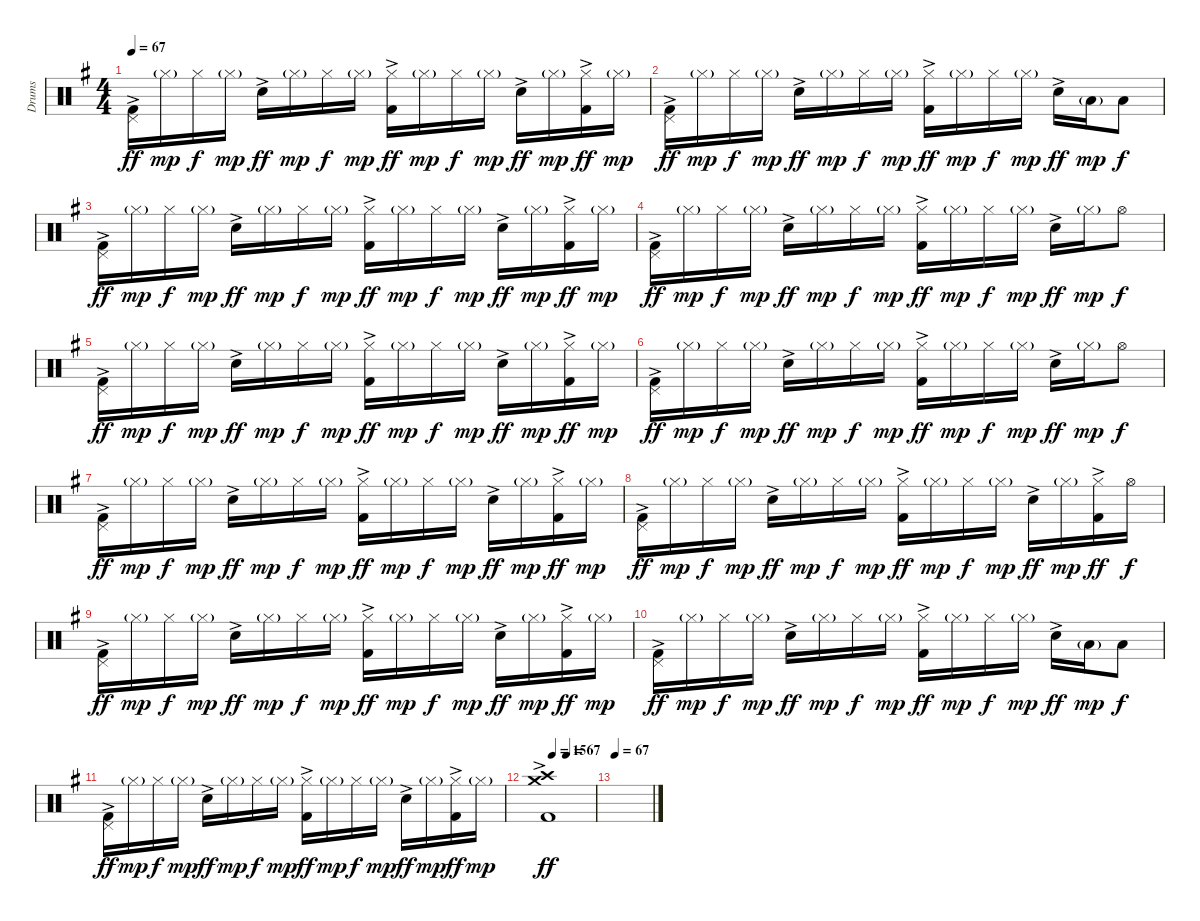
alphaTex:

\track ("Drums" "Drums") {instrument percussion}
\staff {score}
\articulation defaults
\ts (4 4)
\tempo 67
\clef neutral
\ks g
("Pedal Hi-Hat (hit)" "Kick (hit) 2"{ac}).16{dy ff} "Hi-Hat (closed)"{g}.16{dy mp} "Hi-Hat (closed)".16{dy f} "Hi-Hat (closed)"{g}.16{dy mp} "Snare (hit) 2"{ac}.16{dy ff} "Hi-Hat (closed)"{g}.16{dy mp} "Hi-Hat (closed)".16{dy f} "Hi-Hat (closed)"{g}.16{dy mp} ("Hi-Hat (closed)" "Kick (hit) 2"{ac}).16{dy ff} "Hi-Hat (closed)"{g}.16{dy mp} "Hi-Hat (closed)".16{dy f} "Hi-Hat (closed)"{g}.16{dy mp} "Snare (hit) 2"{ac}.16{dy ff} "Hi-Hat (closed)"{g}.16{dy mp} ("Hi-Hat (closed)" "Kick (hit) 2"{ac}).16{dy ff} "Hi-Hat (closed)"{g}.16{dy mp} |
("Pedal Hi-Hat (hit)" "Kick (hit) 2"{ac}).16{dy ff} "Hi-Hat (closed)"{g}.16{dy mp} "Hi-Hat (closed)".16{dy f} "Hi-Hat (closed)"{g}.16{dy mp} "Snare (hit) 2"{ac}.16{dy ff} "Hi-Hat (closed)"{g}.16{dy mp} "Hi-Hat (closed)".16{dy f} "Hi-Hat (closed)"{g}.16{dy mp} ("Hi-Hat (closed)" "Kick (hit) 2"{ac}).16{dy ff} "Hi-Hat (closed)"{g}.16{dy mp} "Hi-Hat (closed)".16{dy f} "Hi-Hat (closed)"{g}.16{dy mp} "Snare (hit) 2"{ac}.16{dy ff} "Low Tom (hit)"{g}.16{dy mp} "Low Floor Tom (hit)".8{dy f} |
("Pedal Hi-Hat (hit)" "Kick (hit) 2"{ac}).16{dy ff} "Hi-Hat (closed)"{g}.16{dy mp} "Hi-Hat (closed)".16{dy f} "Hi-Hat (closed)"{g}.16{dy mp} "Snare (hit) 2"{ac}.16{dy ff} "Hi-Hat (closed)"{g}.16{dy mp} "Hi-Hat (closed)".16{dy f} "Hi-Hat (closed)"{g}.16{dy mp} ("Hi-Hat (closed)" "Kick (hit) 2"{ac}).16{dy ff} "Hi-Hat (closed)"{g}.16{dy mp} "Hi-Hat (closed)".16{dy f} "Hi-Hat (closed)"{g}.16{dy mp} "Snare (hit) 2"{ac}.16{dy ff} "Hi-Hat (closed)"{g}.16{dy mp} ("Hi-Hat (closed)" "Kick (hit) 2"{ac}).16{dy ff} "Hi-Hat (closed)"{g}.16{dy mp} |
("Pedal Hi-Hat (hit)" "Kick (hit) 2"{ac}).16{dy ff} "Hi-Hat (closed)"{g}.16{dy mp} "Hi-Hat (closed)".16{dy f} "Hi-Hat (closed)"{g}.16{dy mp} "Snare (hit) 2"{ac}.16{dy ff} "Hi-Hat (closed)"{g}.16{dy mp} "Hi-Hat (closed)".16{dy f} "Hi-Hat (closed)"{g}.16{dy mp} ("Hi-Hat (closed)" "Kick (hit) 2"{ac}).16{dy ff} "Hi-Hat (closed)"{g}.16{dy mp} "Hi-Hat (closed)".16{dy f} "Hi-Hat (closed)"{g}.16{dy mp} "Snare (hit) 2"{ac}.16{dy ff} "Hi-Hat (closed)"{g}.16{dy mp} "Hi-Hat (open)".8{dy f} |
("Pedal Hi-Hat (hit)" "Kick (hit) 2"{ac}).16{dy ff} "Hi-Hat (closed)"{g}.16{dy mp} "Hi-Hat (closed)".16{dy f} "Hi-Hat (closed)"{g}.16{dy mp} "Snare (hit) 2"{ac}.16{dy ff} "Hi-Hat (closed)"{g}.16{dy mp} "Hi-Hat (closed)".16{dy f} "Hi-Hat (closed)"{g}.16{dy mp} ("Hi-Hat (closed)" "Kick (hit) 2"{ac}).16{dy ff} "Hi-Hat (closed)"{g}.16{dy mp} "Hi-Hat (closed)".16{dy f} "Hi-Hat (closed)"{g}.16{dy mp} "Snare (hit) 2"{ac}.16{dy ff} "Hi-Hat (closed)"{g}.16{dy mp} ("Hi-Hat (closed)" "Kick (hit) 2"{ac}).16{dy ff} "Hi-Hat (closed)"{g}.16{dy mp} |
("Pedal Hi-Hat (hit)" "Kick (hit) 2"{ac}).16{dy ff} "Hi-Hat (closed)"{g}.16{dy mp} "Hi-Hat (closed)".16{dy f} "Hi-Hat (closed)"{g}.16{dy mp} "Snare (hit) 2"{ac}.16{dy ff} "Hi-Hat (closed)"{g}.16{dy mp} "Hi-Hat (closed)".16{dy f} "Hi-Hat (closed)"{g}.16{dy mp} ("Hi-Hat (closed)" "Kick (hit) 2"{ac}).16{dy ff} "Hi-Hat (closed)"{g}.16{dy mp} "Hi-Hat (closed)".16{dy f} "Hi-Hat (closed)"{g}.16{dy mp} "Snare (hit) 2"{ac}.16{dy ff} "Hi-Hat (closed)"{g}.16{dy mp} "Hi-Hat (open)".8{dy f} |
("Pedal Hi-Hat (hit)" "Kick (hit) 2"{ac}).16{dy ff} "Hi-Hat (closed)"{g}.16{dy mp} "Hi-Hat (closed)".16{dy f} "Hi-Hat (closed)"{g}.16{dy mp} "Snare (hit) 2"{ac}.16{dy ff} "Hi-Hat (closed)"{g}.16{dy mp} "Hi-Hat (closed)".16{dy f} "Hi-Hat (closed)"{g}.16{dy mp} ("Hi-Hat (closed)" "Kick (hit) 2"{ac}).16{dy ff} "Hi-Hat (closed)"{g}.16{dy mp} "Hi-Hat (closed)".16{dy f} "Hi-Hat (closed)"{g}.16{dy mp} "Snare (hit) 2"{ac}.16{dy ff} "Hi-Hat (closed)"{g}.16{dy mp} ("Hi-Hat (closed)" "Kick (hit) 2"{ac}).16{dy ff} "Hi-Hat (closed)"{g}.16{dy mp} |
("Pedal Hi-Hat (hit)" "Kick (hit) 2"{ac}).16{dy ff} "Hi-Hat (closed)"{g}.16{dy mp} "Hi-Hat (closed)".16{dy f} "Hi-Hat (closed)"{g}.16{dy mp} "Snare (hit) 2"{ac}.16{dy ff} "Hi-Hat (closed)"{g}.16{dy mp} "Hi-Hat (closed)".16{dy f} "Hi-Hat (closed)"{g}.16{dy mp} ("Hi-Hat (closed)" "Kick (hit) 2"{ac}).16{dy ff} "Hi-Hat (closed)"{g}.16{dy mp} "Hi-Hat (closed)".16{dy f} "Hi-Hat (closed)"{g}.16{dy mp} "Snare (hit) 2"{ac}.16{dy ff} "Hi-Hat (closed)"{g}.16{dy mp} ("Hi-Hat (closed)" "Kick (hit) 2"{ac}).16{dy ff} "Hi-Hat (open)".16{dy f} |
("Pedal Hi-Hat (hit)" "Kick (hit) 2"{ac}).16{dy ff} "Hi-Hat (closed)"{g}.16{dy mp} "Hi-Hat (closed)".16{dy f} "Hi-Hat (closed)"{g}.16{dy mp} "Snare (hit) 2"{ac}.16{dy ff} "Hi-Hat (closed)"{g}.16{dy mp} "Hi-Hat (closed)".16{dy f} "Hi-Hat (closed)"{g}.16{dy mp} ("Hi-Hat (closed)" "Kick (hit) 2"{ac}).16{dy ff} "Hi-Hat (closed)"{g}.16{dy mp} "Hi-Hat (closed)".16{dy f} "Hi-Hat (closed)"{g}.16{dy mp} "Snare (hit) 2"{ac}.16{dy ff} "Hi-Hat (closed)"{g}.16{dy mp} ("Hi-Hat (closed)" "Kick (hit) 2"{ac}).16{dy ff} "Hi-Hat (closed)"{g}.16{dy mp} |
("Pedal Hi-Hat (hit)" "Kick (hit) 2"{ac}).16{dy ff} "Hi-Hat (closed)"{g}.16{dy mp} "Hi-Hat (closed)".16{dy f} "Hi-Hat (closed)"{g}.16{dy mp} "Snare (hit) 2"{ac}.16{dy ff} "Hi-Hat (closed)"{g}.16{dy mp} "Hi-Hat (closed)".16{dy f} "Hi-Hat (closed)"{g}.16{dy mp} ("Hi-Hat (closed)" "Kick (hit) 2"{ac}).16{dy ff} "Hi-Hat (closed)"{g}.16{dy mp} "Hi-Hat (closed)".16{dy f} "Hi-Hat (closed)"{g}.16{dy mp} "Snare (hit) 2"{ac}.16{dy ff} "Low Tom (hit)"{g}.16{dy mp} "Low Floor Tom (hit)".8{dy f} |
("Pedal Hi-Hat (hit)" "Kick (hit) 2"{ac}).16{dy ff} "Hi-Hat (closed)"{g}.16{dy mp} "Hi-Hat (closed)".16{dy f} "Hi-Hat (closed)"{g}.16{dy mp} "Snare (hit) 2"{ac}.16{dy ff} "Hi-Hat (closed)"{g}.16{dy mp} "Hi-Hat (closed)".16{dy f} "Hi-Hat (closed)"{g}.16{dy mp} ("Hi-Hat (closed)" "Kick (hit) 2"{ac}).16{dy ff} "Hi-Hat (closed)"{g}.16{dy mp} "Hi-Hat (closed)".16{dy f} "Hi-Hat (closed)"{g}.16{dy mp} "Snare (hit) 2"{ac}.16{dy ff} "Hi-Hat (closed)"{g}.16{dy mp} ("Hi-Hat (closed)" "Kick (hit) 2"{ac}).16{dy ff} "Hi-Hat (closed)"{g}.16{dy mp} |
\tempo (15 0.25)
\tempo (67 0.5)
("Crash high (hit)" "Crash medium (hit)" "Kick (hit) 2"{ac}).1{dy ff} |
\tempo 67
